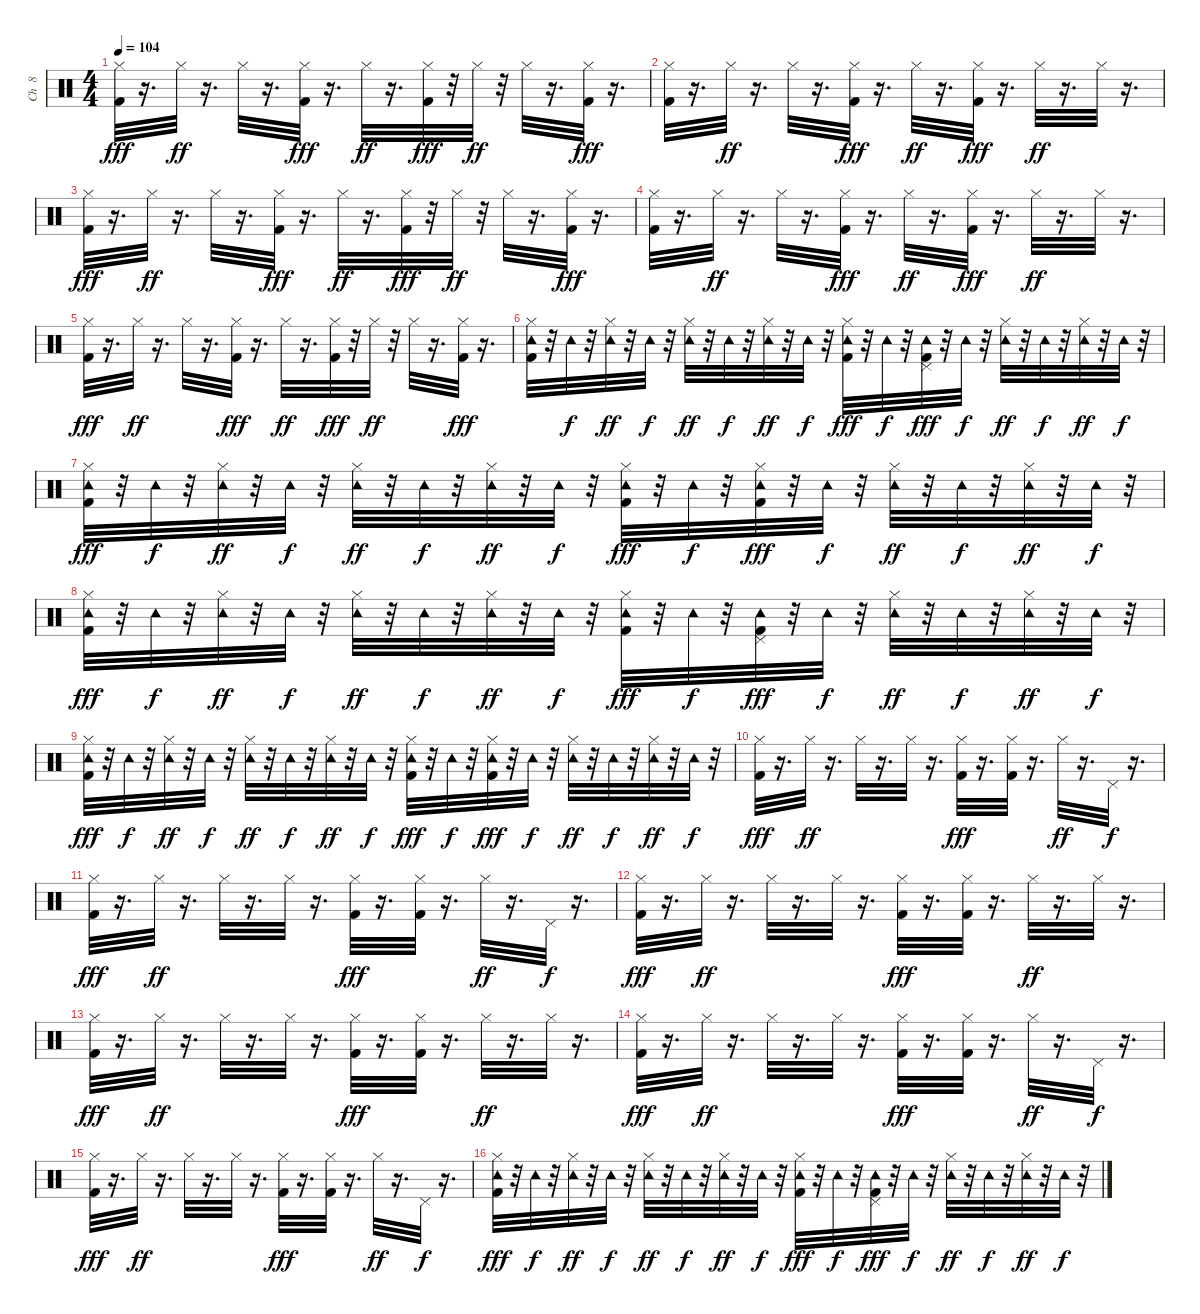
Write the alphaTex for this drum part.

\track ("Ch  8   " "Ch  8   ") {instrument percussion}
\staff {score}
\articulation defaults
\ts (4 4)
\tempo 104
\clef neutral
\ks c
("Hi-Hat (closed)" "Kick (hit) 2").32{dy fff} r.16{d} "Hi-Hat (closed)".32{dy ff} r.16{d} "Hi-Hat (closed)".32 r.16{d} ("Hi-Hat (closed)" "Kick (hit) 2").32{dy fff} r.16{d} "Hi-Hat (closed)".32{dy ff} r.16{d} ("Hi-Hat (closed)" "Kick (hit) 2").32{dy fff} r.32 "Hi-Hat (closed)".32{dy ff} r.32 "Hi-Hat (closed)".32 r.16{d} ("Hi-Hat (closed)" "Kick (hit) 2").32{dy fff} r.16{d} |
("Hi-Hat (closed)" "Kick (hit) 2").32 r.16{d} "Hi-Hat (closed)".32{dy ff} r.16{d} "Hi-Hat (closed)".32 r.16{d} ("Hi-Hat (closed)" "Kick (hit) 2").32{dy fff} r.16{d} "Hi-Hat (closed)".32{dy ff} r.16{d} ("Hi-Hat (closed)" "Kick (hit) 2").32{dy fff} r.16{d} "Hi-Hat (closed)".32{dy ff} r.16{d} "Hi-Hat (closed)".32 r.16{d} |
("Hi-Hat (closed)" "Kick (hit) 2").32{dy fff} r.16{d} "Hi-Hat (closed)".32{dy ff} r.16{d} "Hi-Hat (closed)".32 r.16{d} ("Hi-Hat (closed)" "Kick (hit) 2").32{dy fff} r.16{d} "Hi-Hat (closed)".32{dy ff} r.16{d} ("Hi-Hat (closed)" "Kick (hit) 2").32{dy fff} r.32 "Hi-Hat (closed)".32{dy ff} r.32 "Hi-Hat (closed)".32 r.16{d} ("Hi-Hat (closed)" "Kick (hit) 2").32{dy fff} r.16{d} |
("Hi-Hat (closed)" "Kick (hit) 2").32 r.16{d} "Hi-Hat (closed)".32{dy ff} r.16{d} "Hi-Hat (closed)".32 r.16{d} ("Hi-Hat (closed)" "Kick (hit) 2").32{dy fff} r.16{d} "Hi-Hat (closed)".32{dy ff} r.16{d} ("Hi-Hat (closed)" "Kick (hit) 2").32{dy fff} r.16{d} "Hi-Hat (closed)".32{dy ff} r.16{d} "Hi-Hat (closed)".32 r.16{d} |
("Hi-Hat (closed)" "Kick (hit) 2").32{dy fff} r.16{d} "Hi-Hat (closed)".32{dy ff} r.16{d} "Hi-Hat (closed)".32 r.16{d} ("Hi-Hat (closed)" "Kick (hit) 2").32{dy fff} r.16{d} "Hi-Hat (closed)".32{dy ff} r.16{d} ("Hi-Hat (closed)" "Kick (hit) 2").32{dy fff} r.32 "Hi-Hat (closed)".32{dy ff} r.32 "Hi-Hat (closed)".32 r.16{d} ("Hi-Hat (closed)" "Kick (hit) 2").32{dy fff} r.16{d} |
("Tambourine (hit)" "Hi-Hat (closed)" "Kick (hit) 2").32 r.32 "Tambourine (hit)".32{dy f} r.32 ("Tambourine (hit)" "Hi-Hat (closed)").32{dy ff} r.32 "Tambourine (hit)".32{dy f} r.32 ("Tambourine (hit)" "Hi-Hat (closed)").32{dy ff} r.32 "Tambourine (hit)".32{dy f} r.32 ("Tambourine (hit)" "Hi-Hat (closed)").32{dy ff} r.32 "Tambourine (hit)".32{dy f} r.32 ("Tambourine (hit)" "Hi-Hat (closed)" "Kick (hit) 2").32{dy fff} r.32 "Tambourine (hit)".32{dy f} r.32 ("Pedal Hi-Hat (hit)" "Tambourine (hit)" "Kick (hit) 2").32{dy fff} r.32 "Tambourine (hit)".32{dy f} r.32 ("Tambourine (hit)" "Hi-Hat (closed)").32{dy ff} r.32 "Tambourine (hit)".32{dy f} r.32 ("Tambourine (hit)" "Hi-Hat (closed)").32{dy ff} r.32 "Tambourine (hit)".32{dy f} r.32 |
("Tambourine (hit)" "Hi-Hat (closed)" "Kick (hit) 2").32{dy fff} r.32 "Tambourine (hit)".32{dy f} r.32 ("Tambourine (hit)" "Hi-Hat (closed)").32{dy ff} r.32 "Tambourine (hit)".32{dy f} r.32 ("Tambourine (hit)" "Hi-Hat (closed)").32{dy ff} r.32 "Tambourine (hit)".32{dy f} r.32 ("Tambourine (hit)" "Hi-Hat (closed)").32{dy ff} r.32 "Tambourine (hit)".32{dy f} r.32 ("Tambourine (hit)" "Hi-Hat (closed)" "Kick (hit) 2").32{dy fff} r.32 "Tambourine (hit)".32{dy f} r.32 ("Tambourine (hit)" "Hi-Hat (closed)" "Kick (hit) 2").32{dy fff} r.32 "Tambourine (hit)".32{dy f} r.32 ("Tambourine (hit)" "Hi-Hat (closed)").32{dy ff} r.32 "Tambourine (hit)".32{dy f} r.32 ("Tambourine (hit)" "Hi-Hat (closed)").32{dy ff} r.32 "Tambourine (hit)".32{dy f} r.32 |
("Tambourine (hit)" "Hi-Hat (closed)" "Kick (hit) 2").32{dy fff} r.32 "Tambourine (hit)".32{dy f} r.32 ("Tambourine (hit)" "Hi-Hat (closed)").32{dy ff} r.32 "Tambourine (hit)".32{dy f} r.32 ("Tambourine (hit)" "Hi-Hat (closed)").32{dy ff} r.32 "Tambourine (hit)".32{dy f} r.32 ("Tambourine (hit)" "Hi-Hat (closed)").32{dy ff} r.32 "Tambourine (hit)".32{dy f} r.32 ("Tambourine (hit)" "Hi-Hat (closed)" "Kick (hit) 2").32{dy fff} r.32 "Tambourine (hit)".32{dy f} r.32 ("Pedal Hi-Hat (hit)" "Tambourine (hit)" "Kick (hit) 2").32{dy fff} r.32 "Tambourine (hit)".32{dy f} r.32 ("Tambourine (hit)" "Hi-Hat (closed)").32{dy ff} r.32 "Tambourine (hit)".32{dy f} r.32 ("Tambourine (hit)" "Hi-Hat (closed)").32{dy ff} r.32 "Tambourine (hit)".32{dy f} r.32 |
("Tambourine (hit)" "Hi-Hat (closed)" "Kick (hit) 2").32{dy fff} r.32 "Tambourine (hit)".32{dy f} r.32 ("Tambourine (hit)" "Hi-Hat (closed)").32{dy ff} r.32 "Tambourine (hit)".32{dy f} r.32 ("Tambourine (hit)" "Hi-Hat (closed)").32{dy ff} r.32 "Tambourine (hit)".32{dy f} r.32 ("Tambourine (hit)" "Hi-Hat (closed)").32{dy ff} r.32 "Tambourine (hit)".32{dy f} r.32 ("Tambourine (hit)" "Hi-Hat (closed)" "Kick (hit) 2").32{dy fff} r.32 "Tambourine (hit)".32{dy f} r.32 ("Tambourine (hit)" "Hi-Hat (closed)" "Kick (hit) 2").32{dy fff} r.32 "Tambourine (hit)".32{dy f} r.32 ("Tambourine (hit)" "Hi-Hat (closed)").32{dy ff} r.32 "Tambourine (hit)".32{dy f} r.32 ("Tambourine (hit)" "Hi-Hat (closed)").32{dy ff} r.32 "Tambourine (hit)".32{dy f} r.32 |
("Hi-Hat (closed)" "Kick (hit) 2").32{dy fff} r.16{d} "Hi-Hat (closed)".32{dy ff} r.16{d} "Hi-Hat (closed)".32 r.16{d} "Hi-Hat (closed)".32 r.16{d} ("Hi-Hat (closed)" "Kick (hit) 2").32{dy fff} r.16{d} ("Hi-Hat (closed)" "Kick (hit) 2").32 r.16{d} "Hi-Hat (closed)".32{dy ff} r.16{d} "Pedal Hi-Hat (hit)".32{dy f} r.16{d} |
("Hi-Hat (closed)" "Kick (hit) 2").32{dy fff} r.16{d} "Hi-Hat (closed)".32{dy ff} r.16{d} "Hi-Hat (closed)".32 r.16{d} "Hi-Hat (closed)".32 r.16{d} ("Hi-Hat (closed)" "Kick (hit) 2").32{dy fff} r.16{d} ("Hi-Hat (closed)" "Kick (hit) 2").32 r.16{d} "Hi-Hat (closed)".32{dy ff} r.16{d} "Pedal Hi-Hat (hit)".32{dy f} r.16{d} |
("Hi-Hat (closed)" "Kick (hit) 2").32{dy fff} r.16{d} "Hi-Hat (closed)".32{dy ff} r.16{d} "Hi-Hat (closed)".32 r.16{d} "Hi-Hat (closed)".32 r.16{d} ("Hi-Hat (closed)" "Kick (hit) 2").32{dy fff} r.16{d} ("Hi-Hat (closed)" "Kick (hit) 2").32 r.16{d} "Hi-Hat (closed)".32{dy ff} r.16{d} "Hi-Hat (closed)".32 r.16{d} |
("Hi-Hat (closed)" "Kick (hit) 2").32{dy fff} r.16{d} "Hi-Hat (closed)".32{dy ff} r.16{d} "Hi-Hat (closed)".32 r.16{d} "Hi-Hat (closed)".32 r.16{d} ("Hi-Hat (closed)" "Kick (hit) 2").32{dy fff} r.16{d} ("Hi-Hat (closed)" "Kick (hit) 2").32 r.16{d} "Hi-Hat (closed)".32{dy ff} r.16{d} "Hi-Hat (closed)".32 r.16{d} |
("Hi-Hat (closed)" "Kick (hit) 2").32{dy fff} r.16{d} "Hi-Hat (closed)".32{dy ff} r.16{d} "Hi-Hat (closed)".32 r.16{d} "Hi-Hat (closed)".32 r.16{d} ("Hi-Hat (closed)" "Kick (hit) 2").32{dy fff} r.16{d} ("Hi-Hat (closed)" "Kick (hit) 2").32 r.16{d} "Hi-Hat (closed)".32{dy ff} r.16{d} "Pedal Hi-Hat (hit)".32{dy f} r.16{d} |
("Hi-Hat (closed)" "Kick (hit) 2").32{dy fff} r.16{d} "Hi-Hat (closed)".32{dy ff} r.16{d} "Hi-Hat (closed)".32 r.16{d} "Hi-Hat (closed)".32 r.16{d} ("Hi-Hat (closed)" "Kick (hit) 2").32{dy fff} r.16{d} ("Hi-Hat (closed)" "Kick (hit) 2").32 r.16{d} "Hi-Hat (closed)".32{dy ff} r.16{d} "Pedal Hi-Hat (hit)".32{dy f} r.16{d} |
("Tambourine (hit)" "Hi-Hat (closed)" "Kick (hit) 2").32{dy fff} r.32 "Tambourine (hit)".32{dy f} r.32 ("Tambourine (hit)" "Hi-Hat (closed)").32{dy ff} r.32 "Tambourine (hit)".32{dy f} r.32 ("Tambourine (hit)" "Hi-Hat (closed)").32{dy ff} r.32 "Tambourine (hit)".32{dy f} r.32 ("Tambourine (hit)" "Hi-Hat (closed)").32{dy ff} r.32 "Tambourine (hit)".32{dy f} r.32 ("Tambourine (hit)" "Hi-Hat (closed)" "Kick (hit) 2").32{dy fff} r.32 "Tambourine (hit)".32{dy f} r.32 ("Pedal Hi-Hat (hit)" "Tambourine (hit)" "Kick (hit) 2").32{dy fff} r.32 "Tambourine (hit)".32{dy f} r.32 ("Tambourine (hit)" "Hi-Hat (closed)").32{dy ff} r.32 "Tambourine (hit)".32{dy f} r.32 ("Tambourine (hit)" "Hi-Hat (closed)").32{dy ff} r.32 "Tambourine (hit)".32{dy f} r.32
